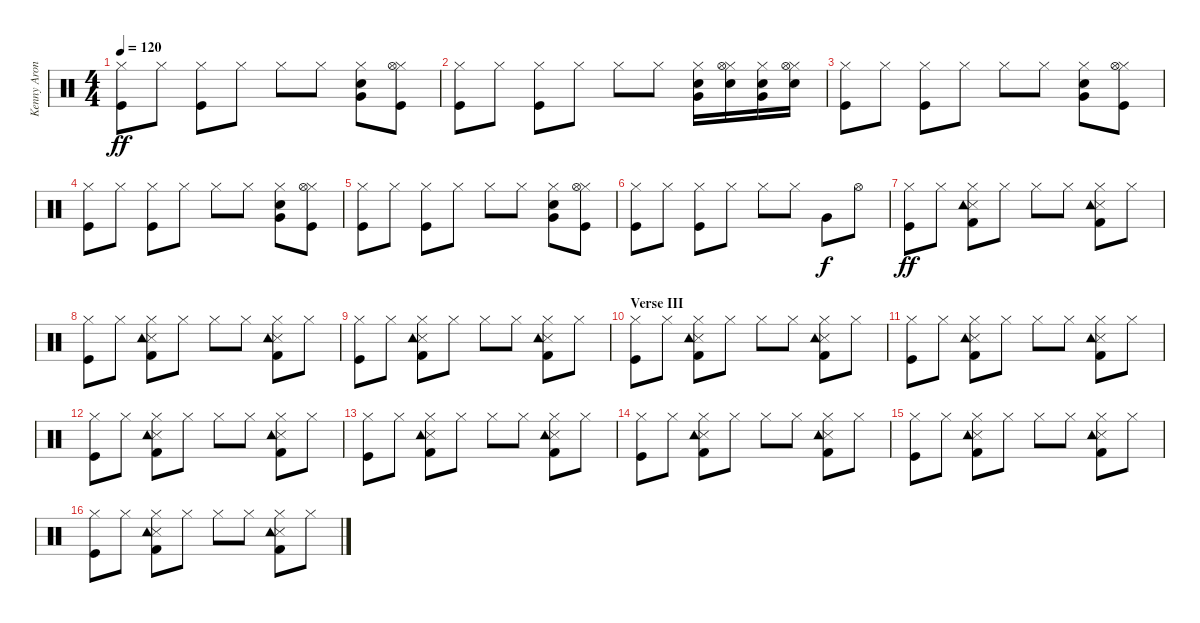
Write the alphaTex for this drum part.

\track ("Kenny Aronoff" "Kenny Aron") {instrument percussion}
\staff {score}
\articulation defaults
\ts (4 4)
\tempo 120
\clef neutral
\ks c
("Kick (hit)" "Hi-Hat (closed)").8{dy ff} "Hi-Hat (closed)".8 ("Kick (hit)" "Hi-Hat (closed)").8 "Hi-Hat (closed)".8 "Hi-Hat (closed)".8 "Hi-Hat (closed)".8 ("Snare (hit) 2" "Hi-Hat (closed)" "Very Low Tom (hit)").8 ("Kick (hit)" "Hi-Hat (closed)" "Hi-Hat (open)").8 |
("Kick (hit)" "Hi-Hat (closed)").8 "Hi-Hat (closed)".8 ("Kick (hit)" "Hi-Hat (closed)").8 "Hi-Hat (closed)".8 "Hi-Hat (closed)".8 "Hi-Hat (closed)".8 ("Snare (hit) 2" "Hi-Hat (closed)" "Very Low Tom (hit)").16 ("Snare (hit) 2" "Hi-Hat (closed)" "Hi-Hat (open)").16 ("Snare (hit) 2" "Hi-Hat (closed)" "Very Low Tom (hit)").16 ("Snare (hit) 2" "Hi-Hat (closed)" "Hi-Hat (open)").16 |
("Kick (hit)" "Hi-Hat (closed)").8 "Hi-Hat (closed)".8 ("Kick (hit)" "Hi-Hat (closed)").8 "Hi-Hat (closed)".8 "Hi-Hat (closed)".8 "Hi-Hat (closed)".8 ("Snare (hit) 2" "Hi-Hat (closed)" "Very Low Tom (hit)").8 ("Kick (hit)" "Hi-Hat (closed)" "Hi-Hat (open)").8 |
("Kick (hit)" "Hi-Hat (closed)").8 "Hi-Hat (closed)".8 ("Kick (hit)" "Hi-Hat (closed)").8 "Hi-Hat (closed)".8 "Hi-Hat (closed)".8 "Hi-Hat (closed)".8 ("Snare (hit) 2" "Hi-Hat (closed)" "Very Low Tom (hit)").8 ("Kick (hit)" "Hi-Hat (closed)" "Hi-Hat (open)").8 |
("Kick (hit)" "Hi-Hat (closed)").8 "Hi-Hat (closed)".8 ("Kick (hit)" "Hi-Hat (closed)").8 "Hi-Hat (closed)".8 "Hi-Hat (closed)".8 "Hi-Hat (closed)".8 ("Snare (hit) 2" "Hi-Hat (closed)" "Very Low Tom (hit)").8 ("Kick (hit)" "Hi-Hat (closed)" "Hi-Hat (open)").8 |
("Kick (hit)" "Hi-Hat (closed)").8 "Hi-Hat (closed)".8 ("Kick (hit)" "Hi-Hat (closed)").8 "Hi-Hat (closed)".8 "Hi-Hat (closed)".8 "Hi-Hat (closed)".8 "Very Low Tom (hit)".8{dy f} "Hi-Hat (open)".8 |
("Kick (hit)" "Hi-Hat (closed)").8{dy ff} "Hi-Hat (closed)".8 ("Kick (hit) 2" "Snare (side stick) 3" "Hi-Hat (closed)" "Tambourine (hit)").8 "Hi-Hat (closed)".8 "Hi-Hat (closed)".8 "Hi-Hat (closed)".8 ("Kick (hit) 2" "Snare (side stick) 3" "Hi-Hat (closed)" "Tambourine (hit)").8 "Hi-Hat (closed)".8 |
("Kick (hit)" "Hi-Hat (closed)").8 "Hi-Hat (closed)".8 ("Kick (hit) 2" "Snare (side stick) 3" "Hi-Hat (closed)" "Tambourine (hit)").8 "Hi-Hat (closed)".8 "Hi-Hat (closed)".8 "Hi-Hat (closed)".8 ("Kick (hit) 2" "Snare (side stick) 3" "Hi-Hat (closed)" "Tambourine (hit)").8 "Hi-Hat (closed)".8 |
("Kick (hit)" "Hi-Hat (closed)").8 "Hi-Hat (closed)".8 ("Kick (hit) 2" "Snare (side stick) 3" "Hi-Hat (closed)" "Tambourine (hit)").8 "Hi-Hat (closed)".8 "Hi-Hat (closed)".8 "Hi-Hat (closed)".8 ("Kick (hit) 2" "Snare (side stick) 3" "Hi-Hat (closed)" "Tambourine (hit)").8 "Hi-Hat (closed)".8 |
\section ("" "Verse III")
("Kick (hit)" "Hi-Hat (closed)").8 "Hi-Hat (closed)".8 ("Kick (hit) 2" "Snare (side stick) 3" "Hi-Hat (closed)" "Tambourine (hit)").8 "Hi-Hat (closed)".8 "Hi-Hat (closed)".8 "Hi-Hat (closed)".8 ("Kick (hit) 2" "Snare (side stick) 3" "Hi-Hat (closed)" "Tambourine (hit)").8 "Hi-Hat (closed)".8 |
("Kick (hit)" "Hi-Hat (closed)").8 "Hi-Hat (closed)".8 ("Kick (hit) 2" "Snare (side stick) 3" "Hi-Hat (closed)" "Tambourine (hit)").8 "Hi-Hat (closed)".8 "Hi-Hat (closed)".8 "Hi-Hat (closed)".8 ("Kick (hit) 2" "Snare (side stick) 3" "Hi-Hat (closed)" "Tambourine (hit)").8 "Hi-Hat (closed)".8 |
("Kick (hit)" "Hi-Hat (closed)").8 "Hi-Hat (closed)".8 ("Kick (hit) 2" "Snare (side stick) 3" "Hi-Hat (closed)" "Tambourine (hit)").8 "Hi-Hat (closed)".8 "Hi-Hat (closed)".8 "Hi-Hat (closed)".8 ("Kick (hit) 2" "Snare (side stick) 3" "Hi-Hat (closed)" "Tambourine (hit)").8 "Hi-Hat (closed)".8 |
("Kick (hit)" "Hi-Hat (closed)").8 "Hi-Hat (closed)".8 ("Kick (hit) 2" "Snare (side stick) 3" "Hi-Hat (closed)" "Tambourine (hit)").8 "Hi-Hat (closed)".8 "Hi-Hat (closed)".8 "Hi-Hat (closed)".8 ("Kick (hit) 2" "Snare (side stick) 3" "Hi-Hat (closed)" "Tambourine (hit)").8 "Hi-Hat (closed)".8 |
("Kick (hit)" "Hi-Hat (closed)").8 "Hi-Hat (closed)".8 ("Kick (hit) 2" "Snare (side stick) 3" "Hi-Hat (closed)" "Tambourine (hit)").8 "Hi-Hat (closed)".8 "Hi-Hat (closed)".8 "Hi-Hat (closed)".8 ("Kick (hit) 2" "Snare (side stick) 3" "Hi-Hat (closed)" "Tambourine (hit)").8 "Hi-Hat (closed)".8 |
("Kick (hit)" "Hi-Hat (closed)").8 "Hi-Hat (closed)".8 ("Kick (hit) 2" "Snare (side stick) 3" "Hi-Hat (closed)" "Tambourine (hit)").8 "Hi-Hat (closed)".8 "Hi-Hat (closed)".8 "Hi-Hat (closed)".8 ("Kick (hit) 2" "Snare (side stick) 3" "Hi-Hat (closed)" "Tambourine (hit)").8 "Hi-Hat (closed)".8 |
("Kick (hit)" "Hi-Hat (closed)").8 "Hi-Hat (closed)".8 ("Kick (hit) 2" "Snare (side stick) 3" "Hi-Hat (closed)" "Tambourine (hit)").8 "Hi-Hat (closed)".8 "Hi-Hat (closed)".8 "Hi-Hat (closed)".8 ("Kick (hit) 2" "Snare (side stick) 3" "Hi-Hat (closed)" "Tambourine (hit)").8 "Hi-Hat (closed)".8
